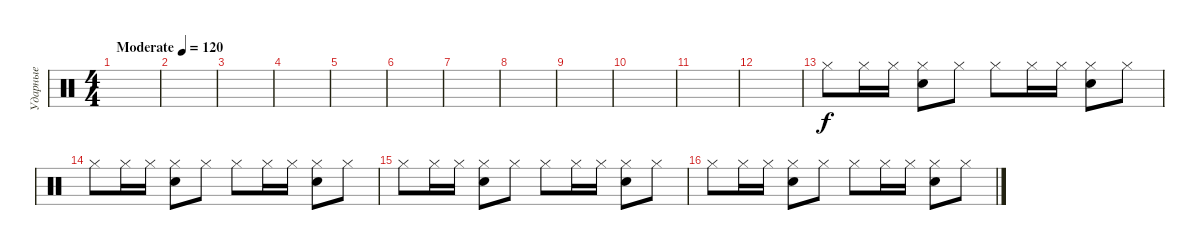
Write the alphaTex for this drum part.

\track ("Ударные" "Ударные") {instrument percussion}
\staff {score}
\articulation defaults
\ts (4 4)
\tempo (120 "Moderate")
\clef neutral
\ks c
|
|
|
|
|
|
|
|
|
|
|
|
"Hi-Hat (closed)".8 "Hi-Hat (closed)".16 "Hi-Hat (closed)".16 ("Hi-Hat (closed)" "Electric Snare (hit)").8 "Hi-Hat (closed)".8 "Hi-Hat (closed)".8 "Hi-Hat (closed)".16 "Hi-Hat (closed)".16 ("Hi-Hat (closed)" "Electric Snare (hit)").8 "Hi-Hat (closed)".8 |
"Hi-Hat (closed)".8 "Hi-Hat (closed)".16 "Hi-Hat (closed)".16 ("Hi-Hat (closed)" "Electric Snare (hit)").8 "Hi-Hat (closed)".8 "Hi-Hat (closed)".8 "Hi-Hat (closed)".16 "Hi-Hat (closed)".16 ("Hi-Hat (closed)" "Electric Snare (hit)").8 "Hi-Hat (closed)".8 |
"Hi-Hat (closed)".8 "Hi-Hat (closed)".16 "Hi-Hat (closed)".16 ("Hi-Hat (closed)" "Electric Snare (hit)").8 "Hi-Hat (closed)".8 "Hi-Hat (closed)".8 "Hi-Hat (closed)".16 "Hi-Hat (closed)".16 ("Hi-Hat (closed)" "Electric Snare (hit)").8 "Hi-Hat (closed)".8 |
"Hi-Hat (closed)".8 "Hi-Hat (closed)".16 "Hi-Hat (closed)".16 ("Hi-Hat (closed)" "Electric Snare (hit)").8 "Hi-Hat (closed)".8 "Hi-Hat (closed)".8 "Hi-Hat (closed)".16 "Hi-Hat (closed)".16 ("Hi-Hat (closed)" "Electric Snare (hit)").8 "Hi-Hat (closed)".8
